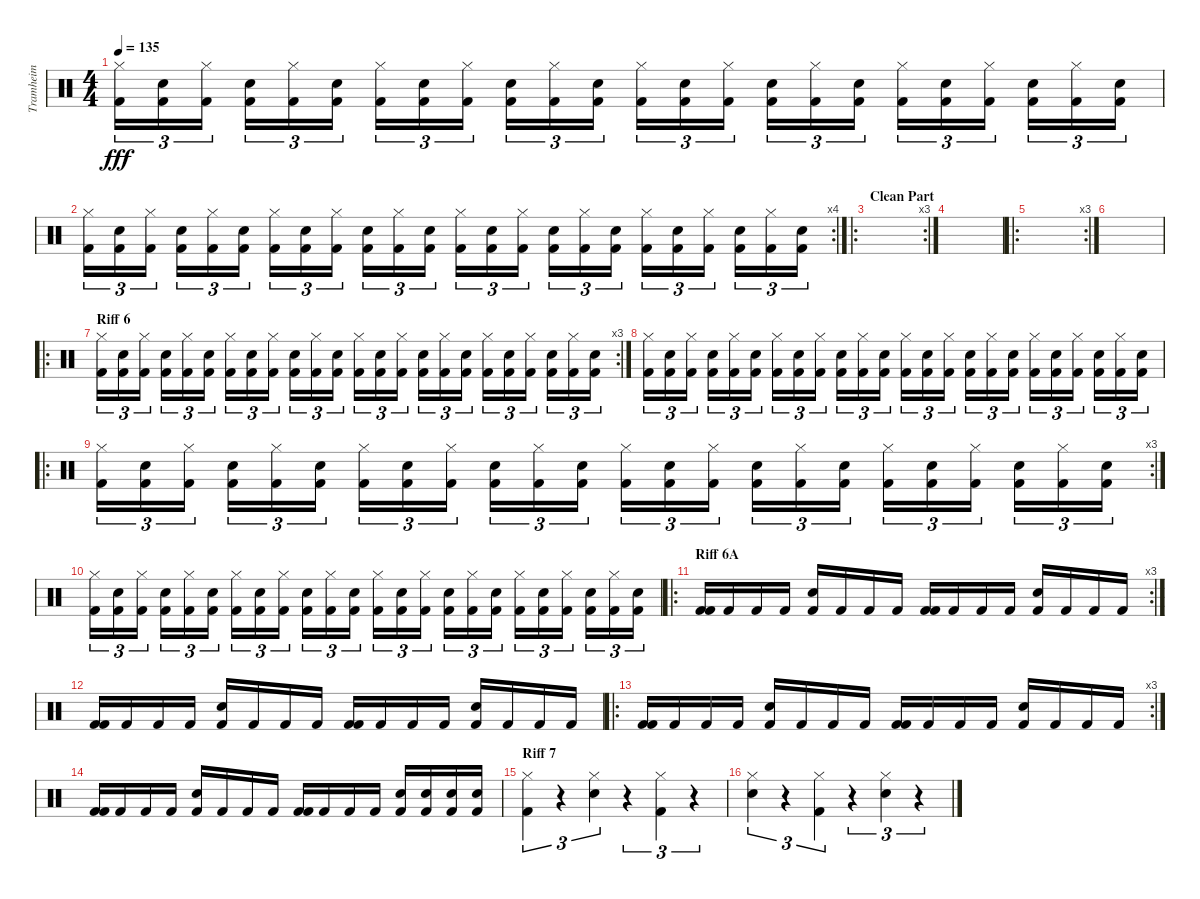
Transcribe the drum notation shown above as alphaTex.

\track ("Tramheim" "Tramheim") {instrument percussion}
\staff {score}
\articulation defaults
\ts (4 4)
\tempo 135
\clef neutral
\ks c
("Hi-Hat (closed)" "Kick (hit) 2").16{tu (3 2) dy fff} ("Snare (hit) 2" "Kick (hit) 2").16{tu (3 2)} ("Hi-Hat (closed)" "Kick (hit) 2").16{tu (3 2)} ("Snare (hit) 2" "Kick (hit) 2").16{tu (3 2)} ("Hi-Hat (closed)" "Kick (hit) 2").16{tu (3 2)} ("Snare (hit) 2" "Kick (hit) 2").16{tu (3 2)} ("Hi-Hat (closed)" "Kick (hit) 2").16{tu (3 2)} ("Snare (hit) 2" "Kick (hit) 2").16{tu (3 2)} ("Hi-Hat (closed)" "Kick (hit) 2").16{tu (3 2)} ("Snare (hit) 2" "Kick (hit) 2").16{tu (3 2)} ("Hi-Hat (closed)" "Kick (hit) 2").16{tu (3 2)} ("Snare (hit) 2" "Kick (hit) 2").16{tu (3 2)} ("Hi-Hat (closed)" "Kick (hit) 2").16{tu (3 2)} ("Snare (hit) 2" "Kick (hit) 2").16{tu (3 2)} ("Hi-Hat (closed)" "Kick (hit) 2").16{tu (3 2)} ("Snare (hit) 2" "Kick (hit) 2").16{tu (3 2)} ("Hi-Hat (closed)" "Kick (hit) 2").16{tu (3 2)} ("Snare (hit) 2" "Kick (hit) 2").16{tu (3 2)} ("Hi-Hat (closed)" "Kick (hit) 2").16{tu (3 2)} ("Snare (hit) 2" "Kick (hit) 2").16{tu (3 2)} ("Hi-Hat (closed)" "Kick (hit) 2").16{tu (3 2)} ("Snare (hit) 2" "Kick (hit) 2").16{tu (3 2)} ("Hi-Hat (closed)" "Kick (hit) 2").16{tu (3 2)} ("Snare (hit) 2" "Kick (hit) 2").16{tu (3 2)} |
\rc 4
("Hi-Hat (closed)" "Kick (hit) 2").16{tu (3 2)} ("Snare (hit) 2" "Kick (hit) 2").16{tu (3 2)} ("Hi-Hat (closed)" "Kick (hit) 2").16{tu (3 2)} ("Snare (hit) 2" "Kick (hit) 2").16{tu (3 2)} ("Hi-Hat (closed)" "Kick (hit) 2").16{tu (3 2)} ("Snare (hit) 2" "Kick (hit) 2").16{tu (3 2)} ("Hi-Hat (closed)" "Kick (hit) 2").16{tu (3 2)} ("Snare (hit) 2" "Kick (hit) 2").16{tu (3 2)} ("Hi-Hat (closed)" "Kick (hit) 2").16{tu (3 2)} ("Snare (hit) 2" "Kick (hit) 2").16{tu (3 2)} ("Hi-Hat (closed)" "Kick (hit) 2").16{tu (3 2)} ("Snare (hit) 2" "Kick (hit) 2").16{tu (3 2)} ("Hi-Hat (closed)" "Kick (hit) 2").16{tu (3 2)} ("Snare (hit) 2" "Kick (hit) 2").16{tu (3 2)} ("Hi-Hat (closed)" "Kick (hit) 2").16{tu (3 2)} ("Snare (hit) 2" "Kick (hit) 2").16{tu (3 2)} ("Hi-Hat (closed)" "Kick (hit) 2").16{tu (3 2)} ("Snare (hit) 2" "Kick (hit) 2").16{tu (3 2)} ("Hi-Hat (closed)" "Kick (hit) 2").16{tu (3 2)} ("Snare (hit) 2" "Kick (hit) 2").16{tu (3 2)} ("Hi-Hat (closed)" "Kick (hit) 2").16{tu (3 2)} ("Snare (hit) 2" "Kick (hit) 2").16{tu (3 2)} ("Hi-Hat (closed)" "Kick (hit) 2").16{tu (3 2)} ("Snare (hit) 2" "Kick (hit) 2").16{tu (3 2)} |
\ro
\rc 3
\section ("" "Clean Part")
|
|
\ro
\rc 3
|
|
\ro
\rc 3
\section ("" "Riff 6")
("Hi-Hat (closed)" "Kick (hit) 2").16{tu (3 2)} ("Snare (hit) 2" "Kick (hit) 2").16{tu (3 2)} ("Hi-Hat (closed)" "Kick (hit) 2").16{tu (3 2)} ("Snare (hit) 2" "Kick (hit) 2").16{tu (3 2)} ("Hi-Hat (closed)" "Kick (hit) 2").16{tu (3 2)} ("Snare (hit) 2" "Kick (hit) 2").16{tu (3 2)} ("Hi-Hat (closed)" "Kick (hit) 2").16{tu (3 2)} ("Snare (hit) 2" "Kick (hit) 2").16{tu (3 2)} ("Hi-Hat (closed)" "Kick (hit) 2").16{tu (3 2)} ("Snare (hit) 2" "Kick (hit) 2").16{tu (3 2)} ("Hi-Hat (closed)" "Kick (hit) 2").16{tu (3 2)} ("Snare (hit) 2" "Kick (hit) 2").16{tu (3 2)} ("Hi-Hat (closed)" "Kick (hit) 2").16{tu (3 2)} ("Snare (hit) 2" "Kick (hit) 2").16{tu (3 2)} ("Hi-Hat (closed)" "Kick (hit) 2").16{tu (3 2)} ("Snare (hit) 2" "Kick (hit) 2").16{tu (3 2)} ("Hi-Hat (closed)" "Kick (hit) 2").16{tu (3 2)} ("Snare (hit) 2" "Kick (hit) 2").16{tu (3 2)} ("Hi-Hat (closed)" "Kick (hit) 2").16{tu (3 2)} ("Snare (hit) 2" "Kick (hit) 2").16{tu (3 2)} ("Hi-Hat (closed)" "Kick (hit) 2").16{tu (3 2)} ("Snare (hit) 2" "Kick (hit) 2").16{tu (3 2)} ("Hi-Hat (closed)" "Kick (hit) 2").16{tu (3 2)} ("Snare (hit) 2" "Kick (hit) 2").16{tu (3 2)} |
("Hi-Hat (closed)" "Kick (hit) 2").16{tu (3 2)} ("Snare (hit) 2" "Kick (hit) 2").16{tu (3 2)} ("Hi-Hat (closed)" "Kick (hit) 2").16{tu (3 2)} ("Snare (hit) 2" "Kick (hit) 2").16{tu (3 2)} ("Hi-Hat (closed)" "Kick (hit) 2").16{tu (3 2)} ("Snare (hit) 2" "Kick (hit) 2").16{tu (3 2)} ("Hi-Hat (closed)" "Kick (hit) 2").16{tu (3 2)} ("Snare (hit) 2" "Kick (hit) 2").16{tu (3 2)} ("Hi-Hat (closed)" "Kick (hit) 2").16{tu (3 2)} ("Snare (hit) 2" "Kick (hit) 2").16{tu (3 2)} ("Hi-Hat (closed)" "Kick (hit) 2").16{tu (3 2)} ("Snare (hit) 2" "Kick (hit) 2").16{tu (3 2)} ("Hi-Hat (closed)" "Kick (hit) 2").16{tu (3 2)} ("Snare (hit) 2" "Kick (hit) 2").16{tu (3 2)} ("Hi-Hat (closed)" "Kick (hit) 2").16{tu (3 2)} ("Snare (hit) 2" "Kick (hit) 2").16{tu (3 2)} ("Hi-Hat (closed)" "Kick (hit) 2").16{tu (3 2)} ("Snare (hit) 2" "Kick (hit) 2").16{tu (3 2)} ("Hi-Hat (closed)" "Kick (hit) 2").16{tu (3 2)} ("Snare (hit) 2" "Kick (hit) 2").16{tu (3 2)} ("Hi-Hat (closed)" "Kick (hit) 2").16{tu (3 2)} ("Snare (hit) 2" "Kick (hit) 2").16{tu (3 2)} ("Hi-Hat (closed)" "Kick (hit) 2").16{tu (3 2)} ("Snare (hit) 2" "Kick (hit) 2").16{tu (3 2)} |
\ro
\rc 3
("Hi-Hat (closed)" "Kick (hit) 2").16{tu (3 2)} ("Snare (hit) 2" "Kick (hit) 2").16{tu (3 2)} ("Hi-Hat (closed)" "Kick (hit) 2").16{tu (3 2)} ("Snare (hit) 2" "Kick (hit) 2").16{tu (3 2)} ("Hi-Hat (closed)" "Kick (hit) 2").16{tu (3 2)} ("Snare (hit) 2" "Kick (hit) 2").16{tu (3 2)} ("Hi-Hat (closed)" "Kick (hit) 2").16{tu (3 2)} ("Snare (hit) 2" "Kick (hit) 2").16{tu (3 2)} ("Hi-Hat (closed)" "Kick (hit) 2").16{tu (3 2)} ("Snare (hit) 2" "Kick (hit) 2").16{tu (3 2)} ("Hi-Hat (closed)" "Kick (hit) 2").16{tu (3 2)} ("Snare (hit) 2" "Kick (hit) 2").16{tu (3 2)} ("Hi-Hat (closed)" "Kick (hit) 2").16{tu (3 2)} ("Snare (hit) 2" "Kick (hit) 2").16{tu (3 2)} ("Hi-Hat (closed)" "Kick (hit) 2").16{tu (3 2)} ("Snare (hit) 2" "Kick (hit) 2").16{tu (3 2)} ("Hi-Hat (closed)" "Kick (hit) 2").16{tu (3 2)} ("Snare (hit) 2" "Kick (hit) 2").16{tu (3 2)} ("Hi-Hat (closed)" "Kick (hit) 2").16{tu (3 2)} ("Snare (hit) 2" "Kick (hit) 2").16{tu (3 2)} ("Hi-Hat (closed)" "Kick (hit) 2").16{tu (3 2)} ("Snare (hit) 2" "Kick (hit) 2").16{tu (3 2)} ("Hi-Hat (closed)" "Kick (hit) 2").16{tu (3 2)} ("Snare (hit) 2" "Kick (hit) 2").16{tu (3 2)} |
("Hi-Hat (closed)" "Kick (hit) 2").16{tu (3 2)} ("Snare (hit) 2" "Kick (hit) 2").16{tu (3 2)} ("Hi-Hat (closed)" "Kick (hit) 2").16{tu (3 2)} ("Snare (hit) 2" "Kick (hit) 2").16{tu (3 2)} ("Hi-Hat (closed)" "Kick (hit) 2").16{tu (3 2)} ("Snare (hit) 2" "Kick (hit) 2").16{tu (3 2)} ("Hi-Hat (closed)" "Kick (hit) 2").16{tu (3 2)} ("Snare (hit) 2" "Kick (hit) 2").16{tu (3 2)} ("Hi-Hat (closed)" "Kick (hit) 2").16{tu (3 2)} ("Snare (hit) 2" "Kick (hit) 2").16{tu (3 2)} ("Hi-Hat (closed)" "Kick (hit) 2").16{tu (3 2)} ("Snare (hit) 2" "Kick (hit) 2").16{tu (3 2)} ("Hi-Hat (closed)" "Kick (hit) 2").16{tu (3 2)} ("Snare (hit) 2" "Kick (hit) 2").16{tu (3 2)} ("Hi-Hat (closed)" "Kick (hit) 2").16{tu (3 2)} ("Snare (hit) 2" "Kick (hit) 2").16{tu (3 2)} ("Hi-Hat (closed)" "Kick (hit) 2").16{tu (3 2)} ("Snare (hit) 2" "Kick (hit) 2").16{tu (3 2)} ("Hi-Hat (closed)" "Kick (hit) 2").16{tu (3 2)} ("Snare (hit) 2" "Kick (hit) 2").16{tu (3 2)} ("Hi-Hat (closed)" "Kick (hit) 2").16{tu (3 2)} ("Snare (hit) 2" "Kick (hit) 2").16{tu (3 2)} ("Hi-Hat (closed)" "Kick (hit) 2").16{tu (3 2)} ("Snare (hit) 2" "Kick (hit) 2").16{tu (3 2)} |
\ro
\rc 3
\section ("" "Riff 6A")
("Kick (hit) 2" "Kick (hit) 2").16 "Kick (hit) 2".16 "Kick (hit) 2".16 "Kick (hit) 2".16 ("Electric Snare (hit)" "Kick (hit) 2").16 "Kick (hit) 2".16 "Kick (hit) 2".16 "Kick (hit) 2".16 ("Kick (hit) 2" "Kick (hit) 2").16 "Kick (hit) 2".16 "Kick (hit) 2".16 "Kick (hit) 2".16 ("Electric Snare (hit)" "Kick (hit) 2").16 "Kick (hit) 2".16 "Kick (hit) 2".16 "Kick (hit) 2".16 |
("Kick (hit) 2" "Kick (hit) 2").16 "Kick (hit) 2".16 "Kick (hit) 2".16 "Kick (hit) 2".16 ("Electric Snare (hit)" "Kick (hit) 2").16 "Kick (hit) 2".16 "Kick (hit) 2".16 "Kick (hit) 2".16 ("Kick (hit) 2" "Kick (hit) 2").16 "Kick (hit) 2".16 "Kick (hit) 2".16 "Kick (hit) 2".16 ("Electric Snare (hit)" "Kick (hit) 2").16 "Kick (hit) 2".16 "Kick (hit) 2".16 "Kick (hit) 2".16 |
\ro
\rc 3
("Kick (hit) 2" "Kick (hit) 2").16 "Kick (hit) 2".16 "Kick (hit) 2".16 "Kick (hit) 2".16 ("Electric Snare (hit)" "Kick (hit) 2").16 "Kick (hit) 2".16 "Kick (hit) 2".16 "Kick (hit) 2".16 ("Kick (hit) 2" "Kick (hit) 2").16 "Kick (hit) 2".16 "Kick (hit) 2".16 "Kick (hit) 2".16 ("Electric Snare (hit)" "Kick (hit) 2").16 "Kick (hit) 2".16 "Kick (hit) 2".16 "Kick (hit) 2".16 |
("Kick (hit) 2" "Kick (hit) 2").16 "Kick (hit) 2".16 "Kick (hit) 2".16 "Kick (hit) 2".16 ("Electric Snare (hit)" "Kick (hit) 2").16 "Kick (hit) 2".16 "Kick (hit) 2".16 "Kick (hit) 2".16 ("Kick (hit) 2" "Kick (hit) 2").16 "Kick (hit) 2".16 "Kick (hit) 2".16 "Kick (hit) 2".16 ("Electric Snare (hit)" "Kick (hit) 2").16 ("Electric Snare (hit)" "Kick (hit) 2").16 ("Electric Snare (hit)" "Kick (hit) 2").16 ("Electric Snare (hit)" "Kick (hit) 2").16 |
\section ("" "Riff 7")
("Hi-Hat (closed)" "Kick (hit) 2").4{tu (3 2)} r.4{tu (3 2)} ("Snare (hit) 2" "Hi-Hat (closed)").4{tu (3 2)} r.4{tu (3 2)} ("Hi-Hat (closed)" "Kick (hit) 2").4{tu (3 2)} r.4{tu (3 2)} |
("Snare (hit) 2" "Hi-Hat (closed)").4{tu (3 2)} r.4{tu (3 2)} ("Hi-Hat (closed)" "Kick (hit) 2").4{tu (3 2)} r.4{tu (3 2)} ("Snare (hit) 2" "Hi-Hat (closed)").4{tu (3 2)} r.4{tu (3 2)}
